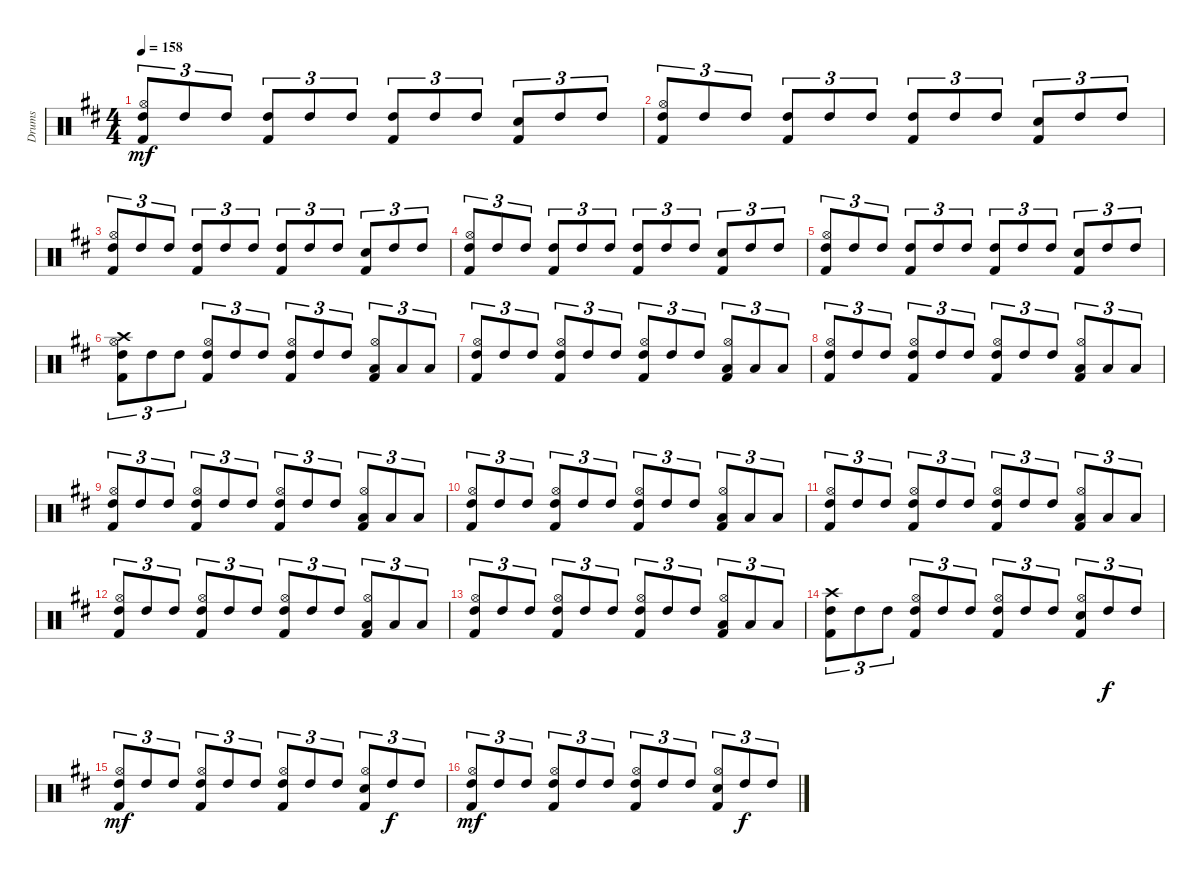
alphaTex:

\track ("Drums" "Drums") {instrument percussion}
\staff {score}
\articulation defaults
\ts (4 4)
\tempo 158
\clef neutral
\ks d
("Kick (hit) 2" "Hi-Hat (open)" "High Tom (hit)").8{tu (3 2) dy mf} "High Tom (hit)".8{tu (3 2)} "High Tom (hit)".8{tu (3 2)} ("Kick (hit) 2" "High Tom (hit)").8{tu (3 2)} "High Tom (hit)".8{tu (3 2)} "High Tom (hit)".8{tu (3 2)} ("Kick (hit) 2" "High Tom (hit)").8{tu (3 2)} "High Tom (hit)".8{tu (3 2)} "High Tom (hit)".8{tu (3 2)} ("Kick (hit) 2" "Snare (hit) 2").8{tu (3 2)} "High Tom (hit)".8{tu (3 2)} "High Tom (hit)".8{tu (3 2)} |
("Kick (hit) 2" "Hi-Hat (open)" "High Tom (hit)").8{tu (3 2)} "High Tom (hit)".8{tu (3 2)} "High Tom (hit)".8{tu (3 2)} ("Kick (hit) 2" "High Tom (hit)").8{tu (3 2)} "High Tom (hit)".8{tu (3 2)} "High Tom (hit)".8{tu (3 2)} ("Kick (hit) 2" "High Tom (hit)").8{tu (3 2)} "High Tom (hit)".8{tu (3 2)} "High Tom (hit)".8{tu (3 2)} ("Kick (hit) 2" "Snare (hit) 2").8{tu (3 2)} "High Tom (hit)".8{tu (3 2)} "High Tom (hit)".8{tu (3 2)} |
("Kick (hit) 2" "Hi-Hat (open)" "High Tom (hit)").8{tu (3 2)} "High Tom (hit)".8{tu (3 2)} "High Tom (hit)".8{tu (3 2)} ("Kick (hit) 2" "High Tom (hit)").8{tu (3 2)} "High Tom (hit)".8{tu (3 2)} "High Tom (hit)".8{tu (3 2)} ("Kick (hit) 2" "High Tom (hit)").8{tu (3 2)} "High Tom (hit)".8{tu (3 2)} "High Tom (hit)".8{tu (3 2)} ("Kick (hit) 2" "Snare (hit) 2").8{tu (3 2)} "High Tom (hit)".8{tu (3 2)} "High Tom (hit)".8{tu (3 2)} |
("Kick (hit) 2" "Hi-Hat (open)" "High Tom (hit)").8{tu (3 2)} "High Tom (hit)".8{tu (3 2)} "High Tom (hit)".8{tu (3 2)} ("Kick (hit) 2" "High Tom (hit)").8{tu (3 2)} "High Tom (hit)".8{tu (3 2)} "High Tom (hit)".8{tu (3 2)} ("Kick (hit) 2" "High Tom (hit)").8{tu (3 2)} "High Tom (hit)".8{tu (3 2)} "High Tom (hit)".8{tu (3 2)} ("Kick (hit) 2" "Snare (hit) 2").8{tu (3 2)} "High Tom (hit)".8{tu (3 2)} "High Tom (hit)".8{tu (3 2)} |
("Kick (hit) 2" "Hi-Hat (open)" "High Tom (hit)").8{tu (3 2)} "High Tom (hit)".8{tu (3 2)} "High Tom (hit)".8{tu (3 2)} ("Kick (hit) 2" "High Tom (hit)").8{tu (3 2)} "High Tom (hit)".8{tu (3 2)} "High Tom (hit)".8{tu (3 2)} ("Kick (hit) 2" "High Tom (hit)").8{tu (3 2)} "High Tom (hit)".8{tu (3 2)} "High Tom (hit)".8{tu (3 2)} ("Kick (hit) 2" "Snare (hit) 2").8{tu (3 2)} "High Tom (hit)".8{tu (3 2)} "High Tom (hit)".8{tu (3 2)} |
("Kick (hit) 2" "Hi-Hat (open)" "High Tom (hit)" "Crash high (hit)").8{tu (3 2)} "High Tom (hit)".8{tu (3 2)} "High Tom (hit)".8{tu (3 2)} ("Kick (hit) 2" "Hi-Hat (open)" "High Tom (hit)").8{tu (3 2)} "High Tom (hit)".8{tu (3 2)} "High Tom (hit)".8{tu (3 2)} ("Kick (hit) 2" "Hi-Hat (open)" "High Tom (hit)").8{tu (3 2)} "High Tom (hit)".8{tu (3 2)} "High Tom (hit)".8{tu (3 2)} ("Kick (hit) 2" "Hi-Hat (open)" "Low Tom (hit)").8{tu (3 2)} "Low Tom (hit)".8{tu (3 2)} "Low Tom (hit)".8{tu (3 2)} |
("Kick (hit) 2" "Hi-Hat (open)" "High Tom (hit)").8{tu (3 2)} "High Tom (hit)".8{tu (3 2)} "High Tom (hit)".8{tu (3 2)} ("Kick (hit) 2" "Hi-Hat (open)" "High Tom (hit)").8{tu (3 2)} "High Tom (hit)".8{tu (3 2)} "High Tom (hit)".8{tu (3 2)} ("Kick (hit) 2" "Hi-Hat (open)" "High Tom (hit)").8{tu (3 2)} "High Tom (hit)".8{tu (3 2)} "High Tom (hit)".8{tu (3 2)} ("Kick (hit) 2" "Hi-Hat (open)" "Low Tom (hit)").8{tu (3 2)} "Low Tom (hit)".8{tu (3 2)} "Low Tom (hit)".8{tu (3 2)} |
("Kick (hit) 2" "Hi-Hat (open)" "High Tom (hit)").8{tu (3 2)} "High Tom (hit)".8{tu (3 2)} "High Tom (hit)".8{tu (3 2)} ("Kick (hit) 2" "Hi-Hat (open)" "High Tom (hit)").8{tu (3 2)} "High Tom (hit)".8{tu (3 2)} "High Tom (hit)".8{tu (3 2)} ("Kick (hit) 2" "Hi-Hat (open)" "High Tom (hit)").8{tu (3 2)} "High Tom (hit)".8{tu (3 2)} "High Tom (hit)".8{tu (3 2)} ("Kick (hit) 2" "Hi-Hat (open)" "Low Tom (hit)").8{tu (3 2)} "Low Tom (hit)".8{tu (3 2)} "Low Tom (hit)".8{tu (3 2)} |
("Kick (hit) 2" "Hi-Hat (open)" "High Tom (hit)").8{tu (3 2)} "High Tom (hit)".8{tu (3 2)} "High Tom (hit)".8{tu (3 2)} ("Kick (hit) 2" "Hi-Hat (open)" "High Tom (hit)").8{tu (3 2)} "High Tom (hit)".8{tu (3 2)} "High Tom (hit)".8{tu (3 2)} ("Kick (hit) 2" "Hi-Hat (open)" "High Tom (hit)").8{tu (3 2)} "High Tom (hit)".8{tu (3 2)} "High Tom (hit)".8{tu (3 2)} ("Kick (hit) 2" "Hi-Hat (open)" "Low Tom (hit)").8{tu (3 2)} "Low Tom (hit)".8{tu (3 2)} "Low Tom (hit)".8{tu (3 2)} |
("Kick (hit) 2" "Hi-Hat (open)" "High Tom (hit)").8{tu (3 2)} "High Tom (hit)".8{tu (3 2)} "High Tom (hit)".8{tu (3 2)} ("Kick (hit) 2" "Hi-Hat (open)" "High Tom (hit)").8{tu (3 2)} "High Tom (hit)".8{tu (3 2)} "High Tom (hit)".8{tu (3 2)} ("Kick (hit) 2" "Hi-Hat (open)" "High Tom (hit)").8{tu (3 2)} "High Tom (hit)".8{tu (3 2)} "High Tom (hit)".8{tu (3 2)} ("Kick (hit) 2" "Hi-Hat (open)" "Low Tom (hit)").8{tu (3 2)} "Low Tom (hit)".8{tu (3 2)} "Low Tom (hit)".8{tu (3 2)} |
("Kick (hit) 2" "Hi-Hat (open)" "High Tom (hit)").8{tu (3 2)} "High Tom (hit)".8{tu (3 2)} "High Tom (hit)".8{tu (3 2)} ("Kick (hit) 2" "Hi-Hat (open)" "High Tom (hit)").8{tu (3 2)} "High Tom (hit)".8{tu (3 2)} "High Tom (hit)".8{tu (3 2)} ("Kick (hit) 2" "Hi-Hat (open)" "High Tom (hit)").8{tu (3 2)} "High Tom (hit)".8{tu (3 2)} "High Tom (hit)".8{tu (3 2)} ("Kick (hit) 2" "Hi-Hat (open)" "Low Tom (hit)").8{tu (3 2)} "Low Tom (hit)".8{tu (3 2)} "Low Tom (hit)".8{tu (3 2)} |
("Kick (hit) 2" "Hi-Hat (open)" "High Tom (hit)").8{tu (3 2)} "High Tom (hit)".8{tu (3 2)} "High Tom (hit)".8{tu (3 2)} ("Kick (hit) 2" "Hi-Hat (open)" "High Tom (hit)").8{tu (3 2)} "High Tom (hit)".8{tu (3 2)} "High Tom (hit)".8{tu (3 2)} ("Kick (hit) 2" "Hi-Hat (open)" "High Tom (hit)").8{tu (3 2)} "High Tom (hit)".8{tu (3 2)} "High Tom (hit)".8{tu (3 2)} ("Kick (hit) 2" "Hi-Hat (open)" "Low Tom (hit)").8{tu (3 2)} "Low Tom (hit)".8{tu (3 2)} "Low Tom (hit)".8{tu (3 2)} |
("Kick (hit) 2" "Hi-Hat (open)" "High Tom (hit)").8{tu (3 2)} "High Tom (hit)".8{tu (3 2)} "High Tom (hit)".8{tu (3 2)} ("Kick (hit) 2" "Hi-Hat (open)" "High Tom (hit)").8{tu (3 2)} "High Tom (hit)".8{tu (3 2)} "High Tom (hit)".8{tu (3 2)} ("Kick (hit) 2" "Hi-Hat (open)" "High Tom (hit)").8{tu (3 2)} "High Tom (hit)".8{tu (3 2)} "High Tom (hit)".8{tu (3 2)} ("Kick (hit) 2" "Hi-Hat (open)" "Low Tom (hit)").8{tu (3 2)} "Low Tom (hit)".8{tu (3 2)} "Low Tom (hit)".8{tu (3 2)} |
("Kick (hit) 2" "High Tom (hit)" "Crash high (hit)").8{tu (3 2)} "High Tom (hit)".8{tu (3 2)} "High Tom (hit)".8{tu (3 2)} ("Kick (hit) 2" "Hi-Hat (open)" "High Tom (hit)").8{tu (3 2)} "High Tom (hit)".8{tu (3 2)} "High Tom (hit)".8{tu (3 2)} ("Kick (hit) 2" "Hi-Hat (open)" "High Tom (hit)").8{tu (3 2)} "High Tom (hit)".8{tu (3 2)} "High Tom (hit)".8{tu (3 2)} ("Kick (hit) 2" "Snare (hit) 2" "Hi-Hat (open)").8{tu (3 2)} "High Tom (hit)".8{tu (3 2) dy f} "High Tom (hit)".8{tu (3 2)} |
("Kick (hit) 2" "Hi-Hat (open)" "High Tom (hit)").8{tu (3 2) dy mf} "High Tom (hit)".8{tu (3 2)} "High Tom (hit)".8{tu (3 2)} ("Kick (hit) 2" "Hi-Hat (open)" "High Tom (hit)").8{tu (3 2)} "High Tom (hit)".8{tu (3 2)} "High Tom (hit)".8{tu (3 2)} ("Kick (hit) 2" "Hi-Hat (open)" "High Tom (hit)").8{tu (3 2)} "High Tom (hit)".8{tu (3 2)} "High Tom (hit)".8{tu (3 2)} ("Kick (hit) 2" "Snare (hit) 2" "Hi-Hat (open)").8{tu (3 2)} "High Tom (hit)".8{tu (3 2) dy f} "High Tom (hit)".8{tu (3 2)} |
("Kick (hit) 2" "Hi-Hat (open)" "High Tom (hit)").8{tu (3 2) dy mf} "High Tom (hit)".8{tu (3 2)} "High Tom (hit)".8{tu (3 2)} ("Kick (hit) 2" "Hi-Hat (open)" "High Tom (hit)").8{tu (3 2)} "High Tom (hit)".8{tu (3 2)} "High Tom (hit)".8{tu (3 2)} ("Kick (hit) 2" "Hi-Hat (open)" "High Tom (hit)").8{tu (3 2)} "High Tom (hit)".8{tu (3 2)} "High Tom (hit)".8{tu (3 2)} ("Kick (hit) 2" "Snare (hit) 2" "Hi-Hat (open)").8{tu (3 2)} "High Tom (hit)".8{tu (3 2) dy f} "High Tom (hit)".8{tu (3 2)}
